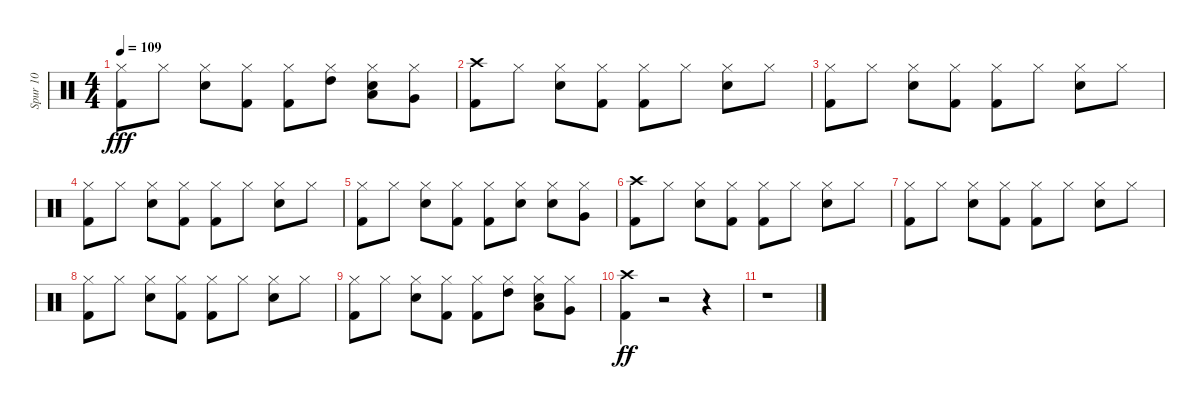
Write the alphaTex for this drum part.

\track ("Spur 10" "Spur 10") {instrument percussion}
\staff {score}
\articulation defaults
\ts (4 4)
\tempo 109
\clef neutral
\ks c
("Kick (hit) 2" "Hi-Hat (closed)").8{dy fff} "Hi-Hat (closed)".8 ("Snare (hit) 2" "Hi-Hat (closed)").8 ("Kick (hit) 2" "Hi-Hat (closed)").8 ("Kick (hit) 2" "Hi-Hat (closed)").8 ("High Tom (hit)" "Hi-Hat (closed)").8 ("Snare (hit) 2" "Low Tom (hit)" "Hi-Hat (closed)").8 ("Very Low Tom (hit)" "Hi-Hat (closed)").8 |
("Kick (hit) 2" "Crash high (hit)").8 "Hi-Hat (closed)".8 ("Snare (hit) 2" "Hi-Hat (closed)").8 ("Kick (hit) 2" "Hi-Hat (closed)").8 ("Kick (hit) 2" "Hi-Hat (closed)").8 "Hi-Hat (closed)".8 ("Snare (hit) 2" "Hi-Hat (closed)").8 "Hi-Hat (closed)".8 |
("Kick (hit) 2" "Hi-Hat (closed)").8 "Hi-Hat (closed)".8 ("Snare (hit) 2" "Hi-Hat (closed)").8 ("Kick (hit) 2" "Hi-Hat (closed)").8 ("Kick (hit) 2" "Hi-Hat (closed)").8 "Hi-Hat (closed)".8 ("Snare (hit) 2" "Hi-Hat (closed)").8 "Hi-Hat (closed)".8 |
("Kick (hit) 2" "Hi-Hat (closed)").8 "Hi-Hat (closed)".8 ("Snare (hit) 2" "Hi-Hat (closed)").8 ("Kick (hit) 2" "Hi-Hat (closed)").8 ("Kick (hit) 2" "Hi-Hat (closed)").8 "Hi-Hat (closed)".8 ("Snare (hit) 2" "Hi-Hat (closed)").8 "Hi-Hat (closed)".8 |
("Kick (hit) 2" "Hi-Hat (closed)").8 "Hi-Hat (closed)".8 ("Snare (hit) 2" "Hi-Hat (closed)").8 ("Kick (hit) 2" "Hi-Hat (closed)").8 ("Kick (hit) 2" "Hi-Hat (closed)").8 ("Snare (hit) 2" "Hi-Hat (closed)").8 ("Snare (hit) 2" "Hi-Hat (closed)").8 ("Very Low Tom (hit)" "Hi-Hat (closed)").8 |
("Kick (hit) 2" "Crash high (hit)").8 "Hi-Hat (closed)".8 ("Snare (hit) 2" "Hi-Hat (closed)").8 ("Kick (hit) 2" "Hi-Hat (closed)").8 ("Kick (hit) 2" "Hi-Hat (closed)").8 "Hi-Hat (closed)".8 ("Snare (hit) 2" "Hi-Hat (closed)").8 "Hi-Hat (closed)".8 |
("Kick (hit) 2" "Hi-Hat (closed)").8 "Hi-Hat (closed)".8 ("Snare (hit) 2" "Hi-Hat (closed)").8 ("Kick (hit) 2" "Hi-Hat (closed)").8 ("Kick (hit) 2" "Hi-Hat (closed)").8 "Hi-Hat (closed)".8 ("Snare (hit) 2" "Hi-Hat (closed)").8 "Hi-Hat (closed)".8 |
("Kick (hit) 2" "Hi-Hat (closed)").8 "Hi-Hat (closed)".8 ("Snare (hit) 2" "Hi-Hat (closed)").8 ("Kick (hit) 2" "Hi-Hat (closed)").8 ("Kick (hit) 2" "Hi-Hat (closed)").8 "Hi-Hat (closed)".8 ("Snare (hit) 2" "Hi-Hat (closed)").8 "Hi-Hat (closed)".8 |
("Kick (hit) 2" "Hi-Hat (closed)").8 "Hi-Hat (closed)".8 ("Snare (hit) 2" "Hi-Hat (closed)").8 ("Kick (hit) 2" "Hi-Hat (closed)").8 ("Kick (hit) 2" "Hi-Hat (closed)").8 ("High Tom (hit)" "Hi-Hat (closed)").8 ("Snare (hit) 2" "Low Tom (hit)" "Hi-Hat (closed)").8 ("Very Low Tom (hit)" "Hi-Hat (closed)").8 |
("Crash high (hit)" "Kick (hit) 2").4{dy ff} r.2 r.4 |
r.1
